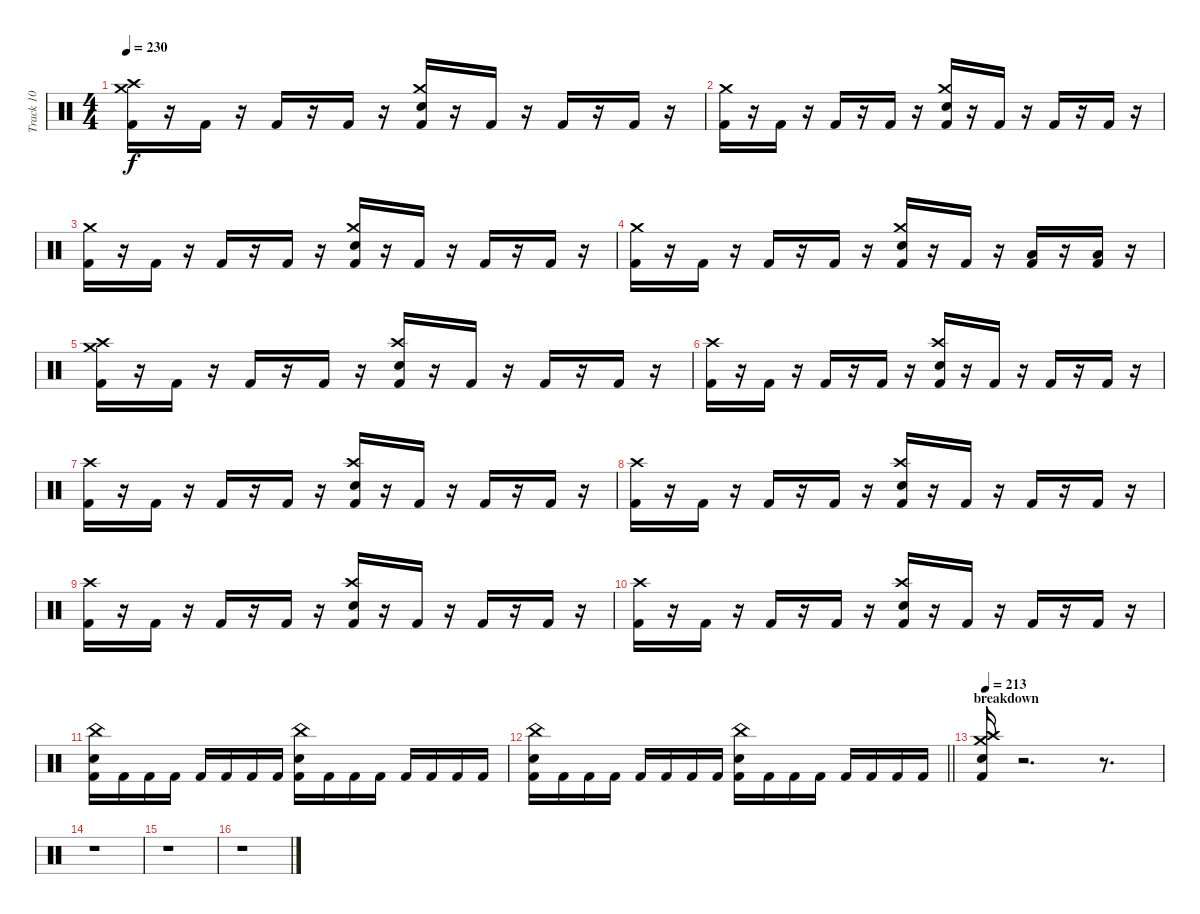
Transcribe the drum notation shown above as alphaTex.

\track ("Track 10" "Track 10") {instrument percussion}
\staff {score}
\articulation defaults
\ts (4 4)
\tempo 230
\clef neutral
\ks c
("Kick (hit) 2" "Crash high (hit)" "Crash medium (hit)").16{dy f} r.16 "Kick (hit) 2".16 r.16 "Kick (hit) 2".16 r.16 "Kick (hit) 2".16 r.16 ("Kick (hit) 2" "Snare (hit) 2" "Crash medium (hit)").16 r.16 "Kick (hit) 2".16 r.16 "Kick (hit) 2".16 r.16 "Kick (hit) 2".16 r.16 |
("Kick (hit) 2" "Crash medium (hit)").16 r.16 "Kick (hit) 2".16 r.16 "Kick (hit) 2".16 r.16 "Kick (hit) 2".16 r.16 ("Kick (hit) 2" "Snare (hit) 2" "Crash medium (hit)").16 r.16 "Kick (hit) 2".16 r.16 "Kick (hit) 2".16 r.16 "Kick (hit) 2".16 r.16 |
("Kick (hit) 2" "Crash medium (hit)").16 r.16 "Kick (hit) 2".16 r.16 "Kick (hit) 2".16 r.16 "Kick (hit) 2".16 r.16 ("Kick (hit) 2" "Snare (hit) 2" "Crash medium (hit)").16 r.16 "Kick (hit) 2".16 r.16 "Kick (hit) 2".16 r.16 "Kick (hit) 2".16 r.16 |
("Kick (hit) 2" "Crash medium (hit)").16 r.16 "Kick (hit) 2".16 r.16 "Kick (hit) 2".16 r.16 "Kick (hit) 2".16 r.16 ("Kick (hit) 2" "Snare (hit) 2" "Crash medium (hit)").16 r.16 "Kick (hit) 2".16 r.16 ("Kick (hit) 2" "Low Tom (hit)").16 r.16 ("Kick (hit) 2" "Low Tom (hit)").16 r.16 |
("Kick (hit) 2" "Crash high (hit)" "Crash medium (hit)").16 r.16 "Kick (hit) 2".16 r.16 "Kick (hit) 2".16 r.16 "Kick (hit) 2".16 r.16 ("Kick (hit) 2" "Snare (hit) 2" "Crash high (hit)").16 r.16 "Kick (hit) 2".16 r.16 "Kick (hit) 2".16 r.16 "Kick (hit) 2".16 r.16 |
("Kick (hit) 2" "Crash high (hit)").16 r.16 "Kick (hit) 2".16 r.16 "Kick (hit) 2".16 r.16 "Kick (hit) 2".16 r.16 ("Kick (hit) 2" "Snare (hit) 2" "Crash high (hit)").16 r.16 "Kick (hit) 2".16 r.16 "Kick (hit) 2".16 r.16 "Kick (hit) 2".16 r.16 |
("Kick (hit) 2" "Crash high (hit)").16 r.16 "Kick (hit) 2".16 r.16 "Kick (hit) 2".16 r.16 "Kick (hit) 2".16 r.16 ("Kick (hit) 2" "Snare (hit) 2" "Crash high (hit)").16 r.16 "Kick (hit) 2".16 r.16 "Kick (hit) 2".16 r.16 "Kick (hit) 2".16 r.16 |
("Kick (hit) 2" "Crash high (hit)").16 r.16 "Kick (hit) 2".16 r.16 "Kick (hit) 2".16 r.16 "Kick (hit) 2".16 r.16 ("Kick (hit) 2" "Snare (hit) 2" "Crash high (hit)").16 r.16 "Kick (hit) 2".16 r.16 "Kick (hit) 2".16 r.16 "Kick (hit) 2".16 r.16 |
("Kick (hit) 2" "Crash high (hit)").16 r.16 "Kick (hit) 2".16 r.16 "Kick (hit) 2".16 r.16 "Kick (hit) 2".16 r.16 ("Kick (hit) 2" "Snare (hit) 2" "Crash high (hit)").16 r.16 "Kick (hit) 2".16 r.16 "Kick (hit) 2".16 r.16 "Kick (hit) 2".16 r.16 |
("Kick (hit) 2" "Crash high (hit)").16 r.16 "Kick (hit) 2".16 r.16 "Kick (hit) 2".16 r.16 "Kick (hit) 2".16 r.16 ("Kick (hit) 2" "Snare (hit) 2" "Crash high (hit)").16 r.16 "Kick (hit) 2".16 r.16 "Kick (hit) 2".16 r.16 "Kick (hit) 2".16 r.16 |
("Kick (hit) 2" "Snare (hit) 2" "China (hit)").16 "Kick (hit) 2".16 "Kick (hit) 2".16 "Kick (hit) 2".16 "Kick (hit) 2".16 "Kick (hit) 2".16 "Kick (hit) 2".16 "Kick (hit) 2".16 ("Kick (hit) 2" "Snare (hit) 2" "China (hit)").16 "Kick (hit) 2".16 "Kick (hit) 2".16 "Kick (hit) 2".16 "Kick (hit) 2".16 "Kick (hit) 2".16 "Kick (hit) 2".16 "Kick (hit) 2".16 |
\barLineRight lightlight
("Kick (hit) 2" "Snare (hit) 2" "China (hit)").16 "Kick (hit) 2".16 "Kick (hit) 2".16 "Kick (hit) 2".16 "Kick (hit) 2".16 "Kick (hit) 2".16 "Kick (hit) 2".16 "Kick (hit) 2".16 ("Kick (hit) 2" "Snare (hit) 2" "China (hit)").16 "Kick (hit) 2".16 "Kick (hit) 2".16 "Kick (hit) 2".16 "Kick (hit) 2".16 "Kick (hit) 2".16 "Kick (hit) 2".16 "Kick (hit) 2".16 |
\section ("" "breakdown")
\tempo 213
("Kick (hit) 2" "Snare (hit) 2" "Crash high (hit)" "Crash medium (hit)").16 r.2{d} r.8{d} |
r.1 |
r.1 |
r.1
